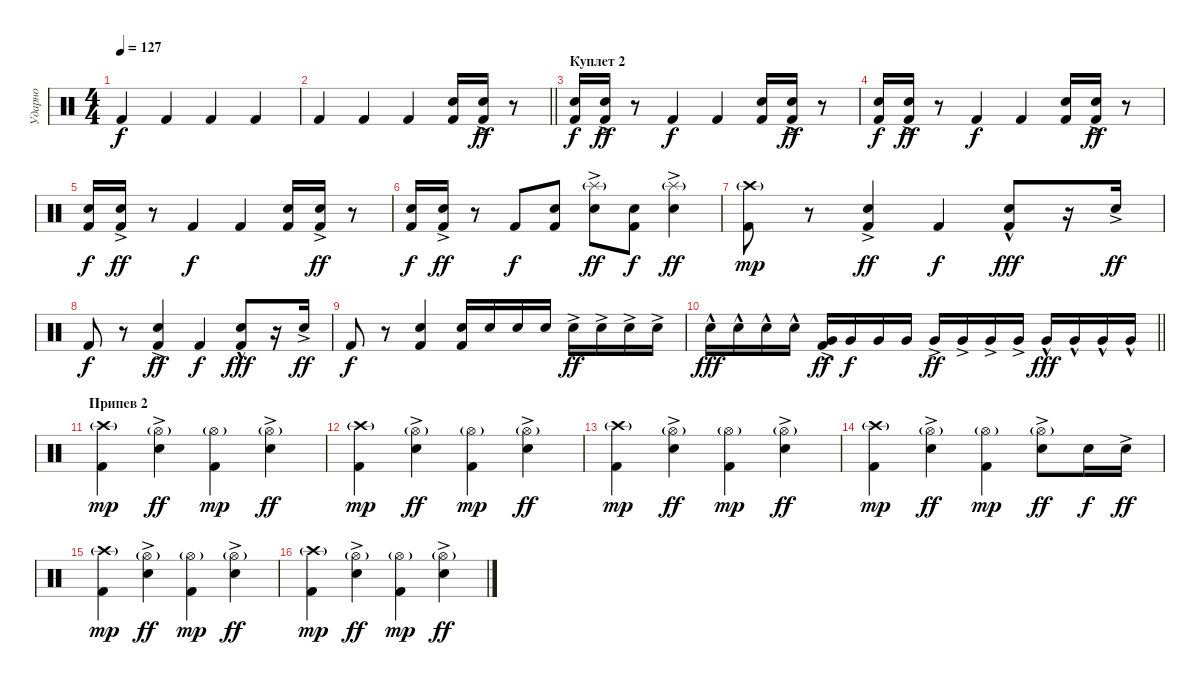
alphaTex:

\track ("Ударно" "Ударно") {instrument percussion}
\staff {score}
\articulation defaults
\ts (4 4)
\tempo 127
\clef neutral
\ks c "Kick (hit) 2".4{dy f} "Kick (hit) 2".4 "Kick (hit) 2".4 "Kick (hit) 2".4
|
\barLineRight lightlight "Kick (hit) 2".4 "Kick (hit) 2".4 "Kick (hit) 2".4
("Electric Snare (hit)" "Kick (hit) 2").16 ("Electric Snare (hit)"{ac} "Kick (hit) 2").16{dy ff} r.8 |
\section ("" "Куплет 2")
("Electric Snare (hit)" "Kick (hit) 2").16{dy f} ("Electric Snare (hit)"{ac} "Kick (hit) 2").16{dy ff} r.8 "Kick (hit) 2".4{dy f} "Kick (hit) 2".4 ("Electric Snare (hit)" "Kick (hit) 2").16 ("Electric Snare (hit)"{ac} "Kick (hit) 2").16{dy ff} r.8 |
("Electric Snare (hit)" "Kick (hit) 2").16{dy f} ("Electric Snare (hit)"{ac} "Kick (hit) 2").16{dy ff} r.8 "Kick (hit) 2".4{dy f} "Kick (hit) 2".4 ("Electric Snare (hit)" "Kick (hit) 2").16 ("Electric Snare (hit)"{ac} "Kick (hit) 2").16{dy ff} r.8 |
("Electric Snare (hit)" "Kick (hit) 2").16{dy f} ("Electric Snare (hit)"{ac} "Kick (hit) 2").16{dy ff} r.8 "Kick (hit) 2".4{dy f} "Kick (hit) 2".4 ("Electric Snare (hit)" "Kick (hit) 2").16 ("Electric Snare (hit)"{ac} "Kick (hit) 2").16{dy ff} r.8 |
("Electric Snare (hit)" "Kick (hit) 2").16{dy f} ("Electric Snare (hit)"{ac} "Kick (hit) 2").16{dy ff} r.8 "Kick (hit) 2".8{dy f} ("Electric Snare (hit)" "Kick (hit) 2").8 ("Splash (hit)"{g} "Electric Snare (hit)"{ac}).8{dy ff} ("Electric Snare (hit)" "Kick (hit) 2").8{dy f} ("Splash (hit)"{g} "Electric Snare (hit)"{ac}).4{dy ff} |
("Crash high (hit)"{g} "Kick (hit) 2").8{dy mp} r.8 ("Electric Snare (hit)"{ac} "Kick (hit) 2").4{dy ff} "Kick (hit) 2".4{dy f} ("Electric Snare (hit)"{hac} "Kick (hit) 2").8{dy fff} r.16 "Electric Snare (hit)"{ac}.16{dy ff} |
"Kick (hit) 2".8{dy f} r.8 ("Electric Snare (hit)"{ac} "Kick (hit) 2").4{dy ff} "Kick (hit) 2".4{dy f} ("Electric Snare (hit)"{hac} "Kick (hit) 2").8{dy fff} r.16 "Electric Snare (hit)"{ac}.16{dy ff} |
"Kick (hit) 2".8{dy f} r.8 ("Electric Snare (hit)" "Kick (hit) 2").4 ("Electric Snare (hit)" "Kick (hit) 2").16 "Electric Snare (hit)".16 "Electric Snare (hit)".16 "Electric Snare (hit)".16 "Electric Snare (hit)"{ac}.16{dy ff} "Electric Snare (hit)"{ac}.16 "Electric Snare (hit)"{ac}.16 "Electric Snare (hit)"{ac}.16 |
\barLineRight lightlight "Electric Snare (hit)"{hac}.16{dy fff} "Electric Snare (hit)"{hac}.16 "Electric Snare (hit)"{hac}.16 "Electric Snare (hit)"{hac}.16
("Very Low Tom (hit)"{ac} "Kick (hit) 2").16{dy ff} "Very Low Tom (hit)".16{dy f} "Very Low Tom (hit)".16 "Very Low Tom (hit)".16 "Very Low Tom (hit)"{ac}.16{dy ff} "Very Low Tom (hit)"{ac}.16 "Very Low Tom (hit)"{ac}.16 "Very Low Tom (hit)"{ac}.16 "Very Low Tom (hit)"{hac}.16{dy fff} "Very Low Tom (hit)"{hac}.16 "Very Low Tom (hit)"{hac}.16 "Very Low Tom (hit)"{hac}.16 |
\section ("" "Припев 2")
("Crash high (hit)"{g} "Kick (hit) 2").4{dy mp} ("Hi-Hat (open)"{g} "Electric Snare (hit)"{ac}).4{dy ff} ("Hi-Hat (open)"{g} "Kick (hit) 2").4{dy mp} ("Hi-Hat (open)"{g} "Electric Snare (hit)"{ac}).4{dy ff} |
("Crash high (hit)"{g} "Kick (hit) 2").4{dy mp} ("Hi-Hat (open)"{g} "Electric Snare (hit)"{ac}).4{dy ff} ("Hi-Hat (open)"{g} "Kick (hit) 2").4{dy mp} ("Hi-Hat (open)"{g} "Electric Snare (hit)"{ac}).4{dy ff} |
("Crash high (hit)"{g} "Kick (hit) 2").4{dy mp} ("Hi-Hat (open)"{g} "Electric Snare (hit)"{ac}).4{dy ff} ("Hi-Hat (open)"{g} "Kick (hit) 2").4{dy mp} ("Hi-Hat (open)"{g} "Electric Snare (hit)"{ac}).4{dy ff} |
("Crash high (hit)"{g} "Kick (hit) 2").4{dy mp} ("Hi-Hat (open)"{g} "Electric Snare (hit)"{ac}).4{dy ff} ("Hi-Hat (open)"{g} "Kick (hit) 2").4{dy mp} ("Hi-Hat (open)"{g} "Electric Snare (hit)"{ac}).8{dy ff} "Electric Snare (hit)".16{dy f} "Electric Snare (hit)"{ac}.16{dy ff} |
("Crash high (hit)"{g} "Kick (hit) 2").4{dy mp} ("Hi-Hat (open)"{g} "Electric Snare (hit)"{ac}).4{dy ff} ("Hi-Hat (open)"{g} "Kick (hit) 2").4{dy mp} ("Hi-Hat (open)"{g} "Electric Snare (hit)"{ac}).4{dy ff} |
("Crash high (hit)"{g} "Kick (hit) 2").4{dy mp} ("Hi-Hat (open)"{g} "Electric Snare (hit)"{ac}).4{dy ff} ("Hi-Hat (open)"{g} "Kick (hit) 2").4{dy mp} ("Hi-Hat (open)"{g} "Electric Snare (hit)"{ac}).4{dy ff}
